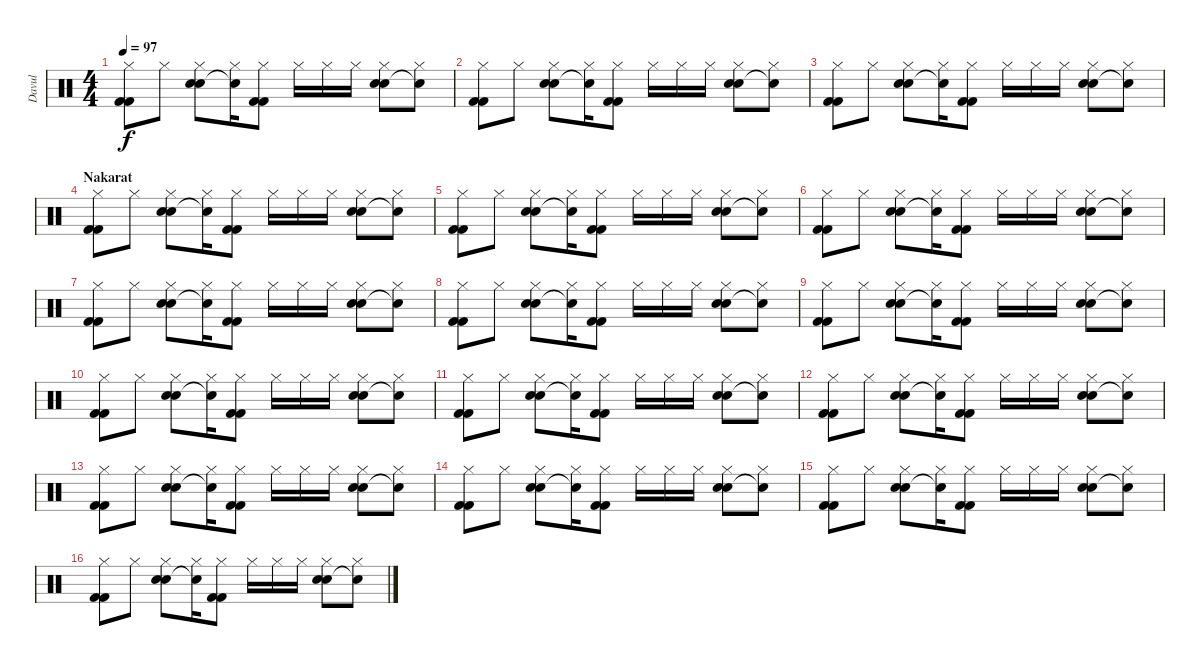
\track ("Davul" "Davul") {instrument percussion}
\staff {score}
\articulation defaults
\ts (4 4)
\tempo 97
\clef neutral
\ks c
("Hi-Hat (closed)" "Kick (hit) 2" "Kick (hit) 2").8{dy f} "Hi-Hat (closed)".8 ("Hi-Hat (closed)" "Snare (hit) 2" "Snare (hit) 2").8 ("Hi-Hat (closed)" "Snare (hit)"{t}).16 ("Hi-Hat (closed)" "Kick (hit) 2" "Kick (hit) 2").8 "Hi-Hat (closed)".16 "Hi-Hat (closed)".16 "Hi-Hat (closed)".16 ("Hi-Hat (closed)" "Snare (hit) 2" "Snare (hit) 2").8 ("Hi-Hat (closed)" "Snare (hit)"{t}).8 |
("Hi-Hat (closed)" "Kick (hit) 2" "Kick (hit) 2").8 "Hi-Hat (closed)".8 ("Hi-Hat (closed)" "Snare (hit) 2" "Snare (hit) 2").8 ("Hi-Hat (closed)" "Snare (hit)"{t}).16 ("Hi-Hat (closed)" "Kick (hit) 2" "Kick (hit) 2").8 "Hi-Hat (closed)".16 "Hi-Hat (closed)".16 "Hi-Hat (closed)".16 ("Hi-Hat (closed)" "Snare (hit) 2" "Snare (hit) 2").8 ("Hi-Hat (closed)" "Snare (hit)"{t}).8 |
("Hi-Hat (closed)" "Kick (hit) 2" "Kick (hit) 2").8 "Hi-Hat (closed)".8 ("Hi-Hat (closed)" "Snare (hit) 2" "Snare (hit) 2").8 ("Hi-Hat (closed)" "Snare (hit)"{t}).16 ("Hi-Hat (closed)" "Kick (hit) 2" "Kick (hit) 2").8 "Hi-Hat (closed)".16 "Hi-Hat (closed)".16 "Hi-Hat (closed)".16 ("Hi-Hat (closed)" "Snare (hit) 2" "Snare (hit) 2").8 ("Hi-Hat (closed)" "Snare (hit)"{t}).8 |
\section ("" "Nakarat")
("Hi-Hat (closed)" "Kick (hit) 2" "Kick (hit) 2").8 "Hi-Hat (closed)".8 ("Hi-Hat (closed)" "Snare (hit) 2" "Snare (hit) 2").8 ("Hi-Hat (closed)" "Snare (hit)"{t}).16 ("Hi-Hat (closed)" "Kick (hit) 2" "Kick (hit) 2").8 "Hi-Hat (closed)".16 "Hi-Hat (closed)".16 "Hi-Hat (closed)".16 ("Hi-Hat (closed)" "Snare (hit) 2" "Snare (hit) 2").8 ("Hi-Hat (closed)" "Snare (hit)"{t}).8 |
("Hi-Hat (closed)" "Kick (hit) 2" "Kick (hit) 2").8 "Hi-Hat (closed)".8 ("Hi-Hat (closed)" "Snare (hit) 2" "Snare (hit) 2").8 ("Hi-Hat (closed)" "Snare (hit)"{t}).16 ("Hi-Hat (closed)" "Kick (hit) 2" "Kick (hit) 2").8 "Hi-Hat (closed)".16 "Hi-Hat (closed)".16 "Hi-Hat (closed)".16 ("Hi-Hat (closed)" "Snare (hit) 2" "Snare (hit) 2").8 ("Hi-Hat (closed)" "Snare (hit)"{t}).8 |
("Hi-Hat (closed)" "Kick (hit) 2" "Kick (hit) 2").8 "Hi-Hat (closed)".8 ("Hi-Hat (closed)" "Snare (hit) 2" "Snare (hit) 2").8 ("Hi-Hat (closed)" "Snare (hit)"{t}).16 ("Hi-Hat (closed)" "Kick (hit) 2" "Kick (hit) 2").8 "Hi-Hat (closed)".16 "Hi-Hat (closed)".16 "Hi-Hat (closed)".16 ("Hi-Hat (closed)" "Snare (hit) 2" "Snare (hit) 2").8 ("Hi-Hat (closed)" "Snare (hit)"{t}).8 |
("Hi-Hat (closed)" "Kick (hit) 2" "Kick (hit) 2").8 "Hi-Hat (closed)".8 ("Hi-Hat (closed)" "Snare (hit) 2" "Snare (hit) 2").8 ("Hi-Hat (closed)" "Snare (hit)"{t}).16 ("Hi-Hat (closed)" "Kick (hit) 2" "Kick (hit) 2").8 "Hi-Hat (closed)".16 "Hi-Hat (closed)".16 "Hi-Hat (closed)".16 ("Hi-Hat (closed)" "Snare (hit) 2" "Snare (hit) 2").8 ("Hi-Hat (closed)" "Snare (hit)"{t}).8 |
("Hi-Hat (closed)" "Kick (hit) 2" "Kick (hit) 2").8 "Hi-Hat (closed)".8 ("Hi-Hat (closed)" "Snare (hit) 2" "Snare (hit) 2").8 ("Hi-Hat (closed)" "Snare (hit)"{t}).16 ("Hi-Hat (closed)" "Kick (hit) 2" "Kick (hit) 2").8 "Hi-Hat (closed)".16 "Hi-Hat (closed)".16 "Hi-Hat (closed)".16 ("Hi-Hat (closed)" "Snare (hit) 2" "Snare (hit) 2").8 ("Hi-Hat (closed)" "Snare (hit)"{t}).8 |
("Hi-Hat (closed)" "Kick (hit) 2" "Kick (hit) 2").8 "Hi-Hat (closed)".8 ("Hi-Hat (closed)" "Snare (hit) 2" "Snare (hit) 2").8 ("Hi-Hat (closed)" "Snare (hit)"{t}).16 ("Hi-Hat (closed)" "Kick (hit) 2" "Kick (hit) 2").8 "Hi-Hat (closed)".16 "Hi-Hat (closed)".16 "Hi-Hat (closed)".16 ("Hi-Hat (closed)" "Snare (hit) 2" "Snare (hit) 2").8 ("Hi-Hat (closed)" "Snare (hit)"{t}).8 |
("Hi-Hat (closed)" "Kick (hit) 2" "Kick (hit) 2").8 "Hi-Hat (closed)".8 ("Hi-Hat (closed)" "Snare (hit) 2" "Snare (hit) 2").8 ("Hi-Hat (closed)" "Snare (hit)"{t}).16 ("Hi-Hat (closed)" "Kick (hit) 2" "Kick (hit) 2").8 "Hi-Hat (closed)".16 "Hi-Hat (closed)".16 "Hi-Hat (closed)".16 ("Hi-Hat (closed)" "Snare (hit) 2" "Snare (hit) 2").8 ("Hi-Hat (closed)" "Snare (hit)"{t}).8 |
("Hi-Hat (closed)" "Kick (hit) 2" "Kick (hit) 2").8 "Hi-Hat (closed)".8 ("Hi-Hat (closed)" "Snare (hit) 2" "Snare (hit) 2").8 ("Hi-Hat (closed)" "Snare (hit)"{t}).16 ("Hi-Hat (closed)" "Kick (hit) 2" "Kick (hit) 2").8 "Hi-Hat (closed)".16 "Hi-Hat (closed)".16 "Hi-Hat (closed)".16 ("Hi-Hat (closed)" "Snare (hit) 2" "Snare (hit) 2").8 ("Hi-Hat (closed)" "Snare (hit)"{t}).8 |
("Hi-Hat (closed)" "Kick (hit) 2" "Kick (hit) 2").8 "Hi-Hat (closed)".8 ("Hi-Hat (closed)" "Snare (hit) 2" "Snare (hit) 2").8 ("Hi-Hat (closed)" "Snare (hit)"{t}).16 ("Hi-Hat (closed)" "Kick (hit) 2" "Kick (hit) 2").8 "Hi-Hat (closed)".16 "Hi-Hat (closed)".16 "Hi-Hat (closed)".16 ("Hi-Hat (closed)" "Snare (hit) 2" "Snare (hit) 2").8 ("Hi-Hat (closed)" "Snare (hit)"{t}).8 |
("Hi-Hat (closed)" "Kick (hit) 2" "Kick (hit) 2").8 "Hi-Hat (closed)".8 ("Hi-Hat (closed)" "Snare (hit) 2" "Snare (hit) 2").8 ("Hi-Hat (closed)" "Snare (hit)"{t}).16 ("Hi-Hat (closed)" "Kick (hit) 2" "Kick (hit) 2").8 "Hi-Hat (closed)".16 "Hi-Hat (closed)".16 "Hi-Hat (closed)".16 ("Hi-Hat (closed)" "Snare (hit) 2" "Snare (hit) 2").8 ("Hi-Hat (closed)" "Snare (hit)"{t}).8 |
("Hi-Hat (closed)" "Kick (hit) 2" "Kick (hit) 2").8 "Hi-Hat (closed)".8 ("Hi-Hat (closed)" "Snare (hit) 2" "Snare (hit) 2").8 ("Hi-Hat (closed)" "Snare (hit)"{t}).16 ("Hi-Hat (closed)" "Kick (hit) 2" "Kick (hit) 2").8 "Hi-Hat (closed)".16 "Hi-Hat (closed)".16 "Hi-Hat (closed)".16 ("Hi-Hat (closed)" "Snare (hit) 2" "Snare (hit) 2").8 ("Hi-Hat (closed)" "Snare (hit)"{t}).8 |
("Hi-Hat (closed)" "Kick (hit) 2" "Kick (hit) 2").8 "Hi-Hat (closed)".8 ("Hi-Hat (closed)" "Snare (hit) 2" "Snare (hit) 2").8 ("Hi-Hat (closed)" "Snare (hit)"{t}).16 ("Hi-Hat (closed)" "Kick (hit) 2" "Kick (hit) 2").8 "Hi-Hat (closed)".16 "Hi-Hat (closed)".16 "Hi-Hat (closed)".16 ("Hi-Hat (closed)" "Snare (hit) 2" "Snare (hit) 2").8 ("Hi-Hat (closed)" "Snare (hit)"{t}).8 |
("Hi-Hat (closed)" "Kick (hit) 2" "Kick (hit) 2").8 "Hi-Hat (closed)".8 ("Hi-Hat (closed)" "Snare (hit) 2" "Snare (hit) 2").8 ("Hi-Hat (closed)" "Snare (hit)"{t}).16 ("Hi-Hat (closed)" "Kick (hit) 2" "Kick (hit) 2").8 "Hi-Hat (closed)".16 "Hi-Hat (closed)".16 "Hi-Hat (closed)".16 ("Hi-Hat (closed)" "Snare (hit) 2" "Snare (hit) 2").8 ("Hi-Hat (closed)" "Snare (hit)"{t}).8
